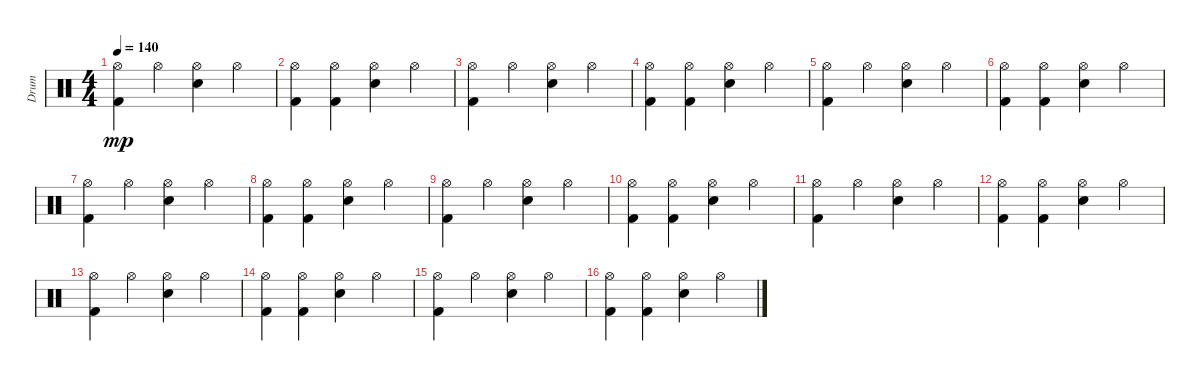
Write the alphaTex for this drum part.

\track ("Drum" "Drum") {instrument percussion}
\staff {score}
\articulation defaults
\ts (4 4)
\tempo 140
\clef neutral
\ks c
("Hi-Hat (open)" "Kick (hit) 2").4{dy mp} "Hi-Hat (open)".4 ("Hi-Hat (open)" "Electric Snare (hit)").4 "Hi-Hat (open)".4 |
("Hi-Hat (open)" "Kick (hit) 2").4 ("Hi-Hat (open)" "Kick (hit) 2").4 ("Hi-Hat (open)" "Electric Snare (hit)").4 "Hi-Hat (open)".4 |
("Hi-Hat (open)" "Kick (hit) 2").4 "Hi-Hat (open)".4 ("Hi-Hat (open)" "Snare (hit) 2").4 "Hi-Hat (open)".4 |
("Hi-Hat (open)" "Kick (hit) 2").4 ("Hi-Hat (open)" "Kick (hit) 2").4 ("Hi-Hat (open)" "Electric Snare (hit)").4 "Hi-Hat (open)".4 |
("Hi-Hat (open)" "Kick (hit) 2").4 "Hi-Hat (open)".4 ("Hi-Hat (open)" "Electric Snare (hit)").4 "Hi-Hat (open)".4 |
("Hi-Hat (open)" "Kick (hit) 2").4 ("Hi-Hat (open)" "Kick (hit) 2").4 ("Hi-Hat (open)" "Electric Snare (hit)").4 "Hi-Hat (open)".4 |
("Hi-Hat (open)" "Kick (hit) 2").4 "Hi-Hat (open)".4 ("Hi-Hat (open)" "Snare (hit) 2").4 "Hi-Hat (open)".4 |
("Hi-Hat (open)" "Kick (hit) 2").4 ("Hi-Hat (open)" "Kick (hit) 2").4 ("Hi-Hat (open)" "Electric Snare (hit)").4 "Hi-Hat (open)".4 |
("Hi-Hat (open)" "Kick (hit) 2").4 "Hi-Hat (open)".4 ("Hi-Hat (open)" "Electric Snare (hit)").4 "Hi-Hat (open)".4 |
("Hi-Hat (open)" "Kick (hit) 2").4 ("Hi-Hat (open)" "Kick (hit) 2").4 ("Hi-Hat (open)" "Electric Snare (hit)").4 "Hi-Hat (open)".4 |
("Hi-Hat (open)" "Kick (hit) 2").4 "Hi-Hat (open)".4 ("Hi-Hat (open)" "Snare (hit) 2").4 "Hi-Hat (open)".4 |
("Hi-Hat (open)" "Kick (hit) 2").4 ("Hi-Hat (open)" "Kick (hit) 2").4 ("Hi-Hat (open)" "Electric Snare (hit)").4 "Hi-Hat (open)".4 |
("Hi-Hat (open)" "Kick (hit) 2").4 "Hi-Hat (open)".4 ("Hi-Hat (open)" "Electric Snare (hit)").4 "Hi-Hat (open)".4 |
("Hi-Hat (open)" "Kick (hit) 2").4 ("Hi-Hat (open)" "Kick (hit) 2").4 ("Hi-Hat (open)" "Electric Snare (hit)").4 "Hi-Hat (open)".4 |
("Hi-Hat (open)" "Kick (hit) 2").4 "Hi-Hat (open)".4 ("Hi-Hat (open)" "Snare (hit) 2").4 "Hi-Hat (open)".4 |
("Hi-Hat (open)" "Kick (hit) 2").4 ("Hi-Hat (open)" "Kick (hit) 2").4 ("Hi-Hat (open)" "Electric Snare (hit)").4 "Hi-Hat (open)".4
